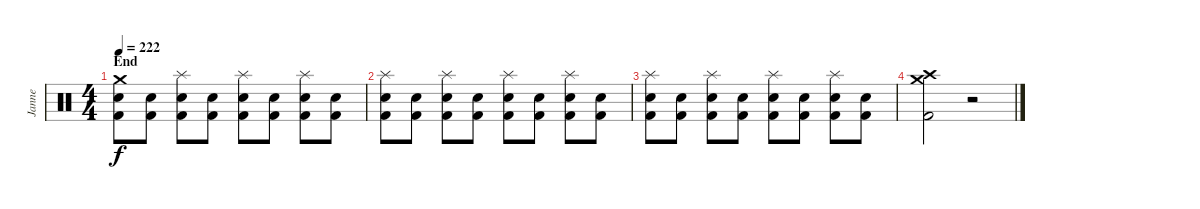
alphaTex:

\track ("Janne" "Janne") {instrument percussion}
\staff {score}
\articulation defaults
\ts (4 4)
\section ("" "End")
\tempo 222
\clef neutral
\ks c
("Kick (hit) 2" "Electric Snare (hit)" "Crash medium (hit)").8{dy f} ("Kick (hit) 2" "Electric Snare (hit)").8 ("Kick (hit) 2" "Electric Snare (hit)" "Splash (hit)").8 ("Kick (hit) 2" "Electric Snare (hit)").8 ("Kick (hit) 2" "Electric Snare (hit)" "Splash (hit)").8 ("Kick (hit) 2" "Electric Snare (hit)").8 ("Kick (hit) 2" "Electric Snare (hit)" "Splash (hit)").8 ("Kick (hit) 2" "Electric Snare (hit)").8 |
("Kick (hit) 2" "Electric Snare (hit)" "Splash (hit)").8 ("Kick (hit) 2" "Electric Snare (hit)").8 ("Kick (hit) 2" "Electric Snare (hit)" "Splash (hit)").8 ("Kick (hit) 2" "Electric Snare (hit)").8 ("Kick (hit) 2" "Electric Snare (hit)" "Splash (hit)").8 ("Kick (hit) 2" "Electric Snare (hit)").8 ("Kick (hit) 2" "Electric Snare (hit)" "Splash (hit)").8 ("Kick (hit) 2" "Electric Snare (hit)").8 |
("Kick (hit) 2" "Electric Snare (hit)" "Splash (hit)").8 ("Kick (hit) 2" "Electric Snare (hit)").8 ("Kick (hit) 2" "Electric Snare (hit)" "Splash (hit)").8 ("Kick (hit) 2" "Electric Snare (hit)").8 ("Kick (hit) 2" "Electric Snare (hit)" "Splash (hit)").8 ("Kick (hit) 2" "Electric Snare (hit)").8 ("Kick (hit) 2" "Electric Snare (hit)" "Splash (hit)").8 ("Kick (hit) 2" "Electric Snare (hit)").8 |
("Kick (hit) 2" "Crash high (hit)" "Crash medium (hit)").2 r.2
